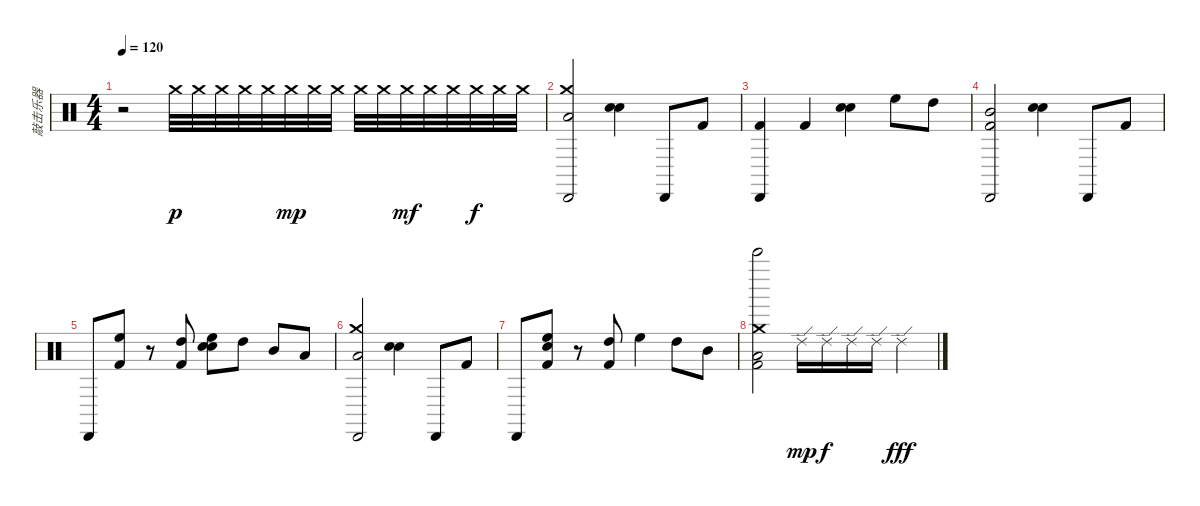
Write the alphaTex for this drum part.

\track ("敲击乐器" "敲击乐器") {instrument percussion}
\staff {score}
\articulation defaults
\ts (4 4)
\tempo 120
\clef neutral
\ks c
r.2{dy p} "Crash medium (hit)".32 "Crash medium (hit)".32 "Crash medium (hit)".32 "Crash medium (hit)".32 "Crash medium (hit)".32 "Crash medium (hit)".32{dy mp} "Crash medium (hit)".32 "Crash medium (hit)".32 "Crash medium (hit)".32 "Crash medium (hit)".32 "Crash medium (hit)".32{dy mf} "Crash medium (hit)".32 "Crash medium (hit)".32 "Crash medium (hit)".32{dy f} "Crash medium (hit)".32 "Crash medium (hit)".32 |
("Crash medium (hit)" "Low Tom (hit)" "Cabasa (hit)").2 ("Electric Snare (hit)" "Hand Clap (hit)").4 "Cabasa (hit)".8 "Kick (hit) 2".8 |
("Kick (hit) 2" "Cabasa (hit)").4 "Kick (hit) 2".4 ("Electric Snare (hit)" "Hand Clap (hit)").4 "High Floor Tom (hit)".8 "High Tom (hit)".8 |
("Mid Tom (hit)" "Kick (hit) 2" "Cabasa (hit)").2 ("Electric Snare (hit)" "Hand Clap (hit)").4 "Cabasa (hit)".8 "Kick (hit) 2".8 |
"Cabasa (hit)".8 ("High Floor Tom (hit)" "Kick (hit) 2").8 r.8 ("High Tom (hit)" "Kick (hit) 2").8 ("High Floor Tom (hit)" "Electric Snare (hit)" "Hand Clap (hit)").8 "High Tom (hit)".8 "Mid Tom (hit)".8 "Low Tom (hit)".8 |
("Crash medium (hit)" "Low Tom (hit)" "Cabasa (hit)").2 ("Electric Snare (hit)" "Hand Clap (hit)").4 "Cabasa (hit)".8 "Kick (hit) 2".8 |
"Cabasa (hit)".8 ("High Floor Tom (hit)" "Hand Clap (hit)" "Kick (hit) 2").8 r.8 ("High Tom (hit)" "Kick (hit) 2").8 "High Floor Tom (hit)".4 "High Tom (hit)".8 "Mid Tom (hit)".8 |
("Crash medium (hit)" "Low Tom (hit)" "Kick (hit) 2" "Bell Tree (hit)").2 "Ride (edge) 2".16{dy mp} "Ride (edge) 2".16{dy f} "Ride (edge) 2".16 "Ride (edge) 2".16 "Ride (edge) 2".4{dy fff}
